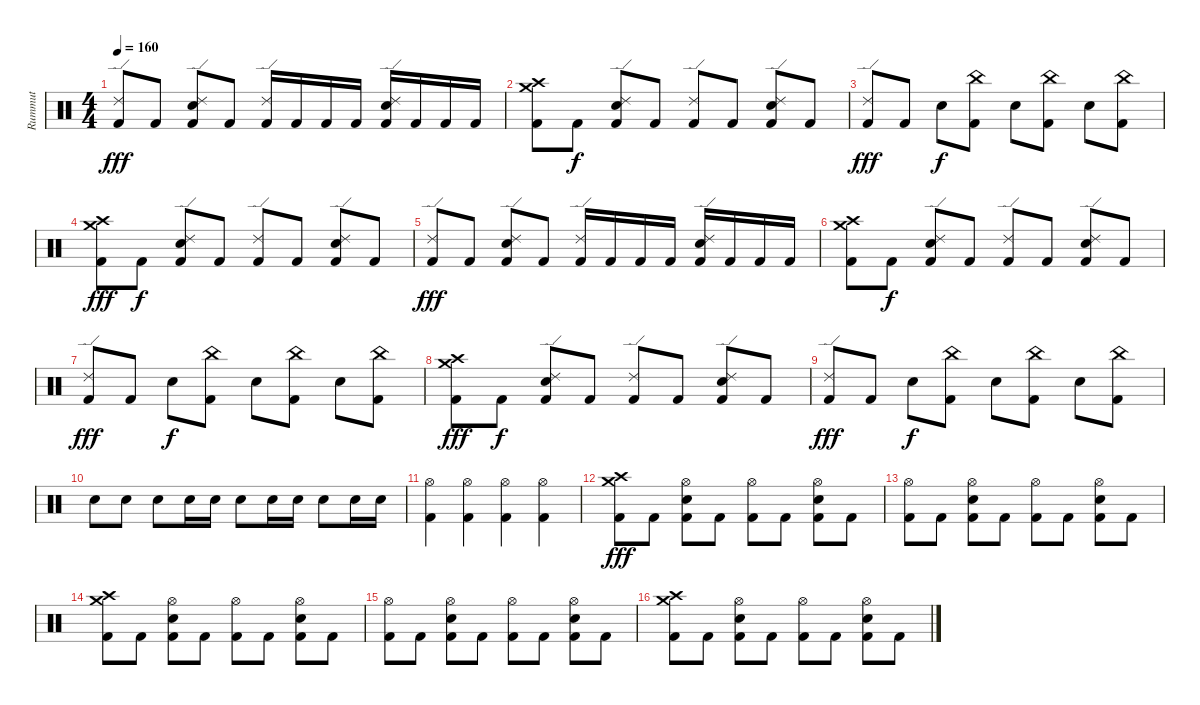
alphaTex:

\track ("Rummut" "Rummut") {instrument percussion}
\staff {score}
\articulation defaults
\ts (4 4)
\tempo 160
\clef neutral
\ks c
("Ride (edge) 2" "Kick (hit) 2").8{dy fff} "Kick (hit) 2".8 ("Ride (edge) 2" "Electric Snare (hit)" "Kick (hit) 2").8 "Kick (hit) 2".8 ("Ride (edge) 2" "Kick (hit) 2").16 "Kick (hit) 2".16 "Kick (hit) 2".16 "Kick (hit) 2".16 ("Ride (edge) 2" "Electric Snare (hit)" "Kick (hit) 2").16 "Kick (hit) 2".16 "Kick (hit) 2".16 "Kick (hit) 2".16 |
("Crash high (hit)" "Crash medium (hit)" "Kick (hit) 2").8 "Kick (hit) 2".8{dy f} ("Ride (edge) 2" "Electric Snare (hit)" "Kick (hit) 2").8 "Kick (hit) 2".8 ("Ride (edge) 2" "Kick (hit) 2").8 "Kick (hit) 2".8 ("Ride (edge) 2" "Electric Snare (hit)" "Kick (hit) 2").8 "Kick (hit) 2".8 |
("Ride (edge) 2" "Kick (hit) 2").8{dy fff} "Kick (hit) 2".8 "Electric Snare (hit)".8{dy f} ("China (hit)" "Kick (hit) 2").8 "Electric Snare (hit)".8 ("China (hit)" "Kick (hit) 2").8 "Electric Snare (hit)".8 ("China (hit)" "Kick (hit) 2").8 |
("Crash high (hit)" "Crash medium (hit)" "Kick (hit) 2").8{dy fff} "Kick (hit) 2".8{dy f} ("Ride (edge) 2" "Electric Snare (hit)" "Kick (hit) 2").8 "Kick (hit) 2".8 ("Ride (edge) 2" "Kick (hit) 2").8 "Kick (hit) 2".8 ("Ride (edge) 2" "Electric Snare (hit)" "Kick (hit) 2").8 "Kick (hit) 2".8 |
("Ride (edge) 2" "Kick (hit) 2").8{dy fff} "Kick (hit) 2".8 ("Ride (edge) 2" "Electric Snare (hit)" "Kick (hit) 2").8 "Kick (hit) 2".8 ("Ride (edge) 2" "Kick (hit) 2").16 "Kick (hit) 2".16 "Kick (hit) 2".16 "Kick (hit) 2".16 ("Ride (edge) 2" "Electric Snare (hit)" "Kick (hit) 2").16 "Kick (hit) 2".16 "Kick (hit) 2".16 "Kick (hit) 2".16 |
("Crash high (hit)" "Crash medium (hit)" "Kick (hit) 2").8 "Kick (hit) 2".8{dy f} ("Ride (edge) 2" "Electric Snare (hit)" "Kick (hit) 2").8 "Kick (hit) 2".8 ("Ride (edge) 2" "Kick (hit) 2").8 "Kick (hit) 2".8 ("Ride (edge) 2" "Electric Snare (hit)" "Kick (hit) 2").8 "Kick (hit) 2".8 |
("Ride (edge) 2" "Kick (hit) 2").8{dy fff} "Kick (hit) 2".8 "Electric Snare (hit)".8{dy f} ("China (hit)" "Kick (hit) 2").8 "Electric Snare (hit)".8 ("China (hit)" "Kick (hit) 2").8 "Electric Snare (hit)".8 ("China (hit)" "Kick (hit) 2").8 |
("Crash high (hit)" "Crash medium (hit)" "Kick (hit) 2").8{dy fff} "Kick (hit) 2".8{dy f} ("Ride (edge) 2" "Electric Snare (hit)" "Kick (hit) 2").8 "Kick (hit) 2".8 ("Ride (edge) 2" "Kick (hit) 2").8 "Kick (hit) 2".8 ("Ride (edge) 2" "Electric Snare (hit)" "Kick (hit) 2").8 "Kick (hit) 2".8 |
("Ride (edge) 2" "Kick (hit) 2").8{dy fff} "Kick (hit) 2".8 "Electric Snare (hit)".8{dy f} ("China (hit)" "Kick (hit) 2").8 "Electric Snare (hit)".8 ("China (hit)" "Kick (hit) 2").8 "Electric Snare (hit)".8 ("China (hit)" "Kick (hit) 2").8 |
"Snare (hit) 2".8 "Snare (hit) 2".8 "Snare (hit) 2".8 "Snare (hit) 2".16 "Snare (hit) 2".16 "Snare (hit) 2".8 "Snare (hit) 2".16 "Snare (hit) 2".16 "Snare (hit) 2".8 "Snare (hit) 2".16 "Snare (hit) 2".16 |
("Hi-Hat (open)" "Kick (hit) 2").4 ("Hi-Hat (open)" "Kick (hit) 2").4 ("Hi-Hat (open)" "Kick (hit) 2").4 ("Hi-Hat (open)" "Kick (hit) 2").4 |
("Crash high (hit)" "Crash medium (hit)" "Kick (hit) 2").8{dy fff} "Kick (hit) 2".8 ("Hi-Hat (open)" "Electric Snare (hit)" "Kick (hit) 2").8 "Kick (hit) 2".8 ("Hi-Hat (open)" "Kick (hit) 2").8 "Kick (hit) 2".8 ("Hi-Hat (open)" "Electric Snare (hit)" "Kick (hit) 2").8 "Kick (hit) 2".8 |
("Hi-Hat (open)" "Kick (hit) 2").8 "Kick (hit) 2".8 ("Hi-Hat (open)" "Electric Snare (hit)" "Kick (hit) 2").8 "Kick (hit) 2".8 ("Hi-Hat (open)" "Kick (hit) 2").8 "Kick (hit) 2".8 ("Hi-Hat (open)" "Electric Snare (hit)" "Kick (hit) 2").8 "Kick (hit) 2".8 |
("Crash high (hit)" "Crash medium (hit)" "Kick (hit) 2").8 "Kick (hit) 2".8 ("Hi-Hat (open)" "Electric Snare (hit)" "Kick (hit) 2").8 "Kick (hit) 2".8 ("Hi-Hat (open)" "Kick (hit) 2").8 "Kick (hit) 2".8 ("Hi-Hat (open)" "Electric Snare (hit)" "Kick (hit) 2").8 "Kick (hit) 2".8 |
("Hi-Hat (open)" "Kick (hit) 2").8 "Kick (hit) 2".8 ("Hi-Hat (open)" "Electric Snare (hit)" "Kick (hit) 2").8 "Kick (hit) 2".8 ("Hi-Hat (open)" "Kick (hit) 2").8 "Kick (hit) 2".8 ("Hi-Hat (open)" "Electric Snare (hit)" "Kick (hit) 2").8 "Kick (hit) 2".8 |
("Crash high (hit)" "Crash medium (hit)" "Kick (hit) 2").8 "Kick (hit) 2".8 ("Hi-Hat (open)" "Electric Snare (hit)" "Kick (hit) 2").8 "Kick (hit) 2".8 ("Hi-Hat (open)" "Kick (hit) 2").8 "Kick (hit) 2".8 ("Hi-Hat (open)" "Electric Snare (hit)" "Kick (hit) 2").8 "Kick (hit) 2".8
